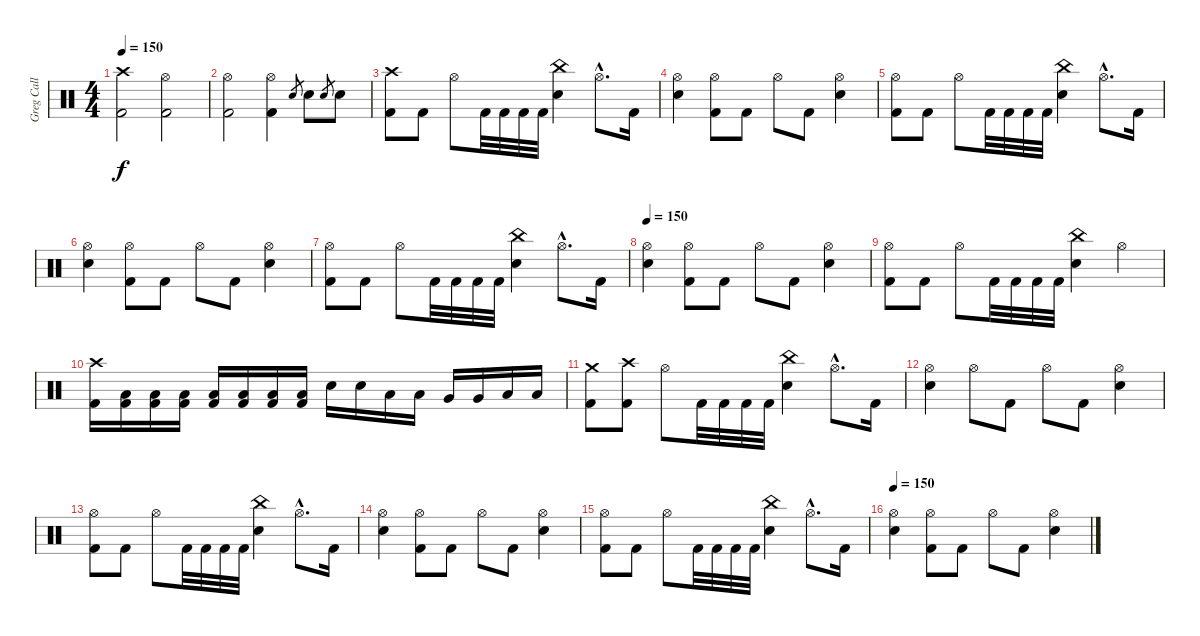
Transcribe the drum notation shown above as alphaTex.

\track ("Greg Call (Drums)" "Greg Call ") {instrument percussion}
\staff {score}
\articulation defaults
\ts (4 4)
\tempo 150
\clef neutral
\ks c
("Crash high (hit)" "Kick (hit) 2").2{dy f} ("Hi-Hat (open)" "Kick (hit) 2").2 |
("Hi-Hat (open)" "Kick (hit) 2").2 ("Hi-Hat (open)" "Kick (hit) 2").4 "Snare (hit) 2".8{gr} "Snare (hit) 2".8 "Snare (hit) 2".8{gr} "Snare (hit) 2".8 |
("Crash high (hit)" "Kick (hit) 2").8 "Kick (hit) 2".8 "Hi-Hat (open)".8 "Kick (hit) 2".32 "Kick (hit) 2".32 "Kick (hit) 2".32 "Kick (hit) 2".32 ("China (hit)" "Snare (hit) 2").4 "Hi-Hat (open)"{hac}.8{d} "Kick (hit) 2".16 |
("Hi-Hat (open)" "Snare (hit) 2").4 ("Hi-Hat (open)" "Kick (hit) 2").8 "Kick (hit) 2".8 "Hi-Hat (open)".8 "Kick (hit) 2".8 ("Hi-Hat (open)" "Snare (hit) 2").4 |
("Hi-Hat (open)" "Kick (hit) 2").8 "Kick (hit) 2".8 "Hi-Hat (open)".8 "Kick (hit) 2".32 "Kick (hit) 2".32 "Kick (hit) 2".32 "Kick (hit) 2".32 ("China (hit)" "Snare (hit) 2").4 "Hi-Hat (open)"{hac}.8{d} "Kick (hit) 2".16 |
("Hi-Hat (open)" "Snare (hit) 2").4 ("Hi-Hat (open)" "Kick (hit) 2").8 "Kick (hit) 2".8 "Hi-Hat (open)".8 "Kick (hit) 2".8 ("Hi-Hat (open)" "Snare (hit) 2").4 |
("Hi-Hat (open)" "Kick (hit) 2").8 "Kick (hit) 2".8 "Hi-Hat (open)".8 "Kick (hit) 2".32 "Kick (hit) 2".32 "Kick (hit) 2".32 "Kick (hit) 2".32 ("China (hit)" "Snare (hit) 2").4 "Hi-Hat (open)"{hac}.8{d} "Kick (hit) 2".16 |
\tempo 150
("Hi-Hat (open)" "Snare (hit) 2").4 ("Hi-Hat (open)" "Kick (hit) 2").8 "Kick (hit) 2".8 "Hi-Hat (open)".8 "Kick (hit) 2".8 ("Hi-Hat (open)" "Snare (hit) 2").4 |
("Hi-Hat (open)" "Kick (hit) 2").8 "Kick (hit) 2".8 "Hi-Hat (open)".8 "Kick (hit) 2".32 "Kick (hit) 2".32 "Kick (hit) 2".32 "Kick (hit) 2".32 ("China (hit)" "Snare (hit) 2").4 "Hi-Hat (open)".4 |
("Crash high (hit)" "Kick (hit) 2").16 ("Low Floor Tom (hit)" "Kick (hit) 2").16 ("Low Floor Tom (hit)" "Kick (hit) 2").16 ("Low Floor Tom (hit)" "Kick (hit) 2").16 ("Low Floor Tom (hit)" "Kick (hit) 2").16 ("Low Floor Tom (hit)" "Kick (hit) 2").16 ("Low Floor Tom (hit)" "Kick (hit) 2").16 ("Low Floor Tom (hit)" "Kick (hit) 2").16 "Snare (hit) 2".16 "Snare (hit) 2".16 "Low Tom (hit)".16 "Low Tom (hit)".16 "Very Low Tom (hit)".16 "Very Low Tom (hit)".16 "Low Floor Tom (hit)".16 "Low Floor Tom (hit)".16 |
("Crash medium (hit)" "Kick (hit) 2").8 ("Crash high (hit)" "Kick (hit) 2").8 "Hi-Hat (open)".8 "Kick (hit) 2".32 "Kick (hit) 2".32 "Kick (hit) 2".32 "Kick (hit) 2".32 ("China (hit)" "Snare (hit) 2").4 "Hi-Hat (open)"{hac}.8{d} "Kick (hit) 2".16 |
("Hi-Hat (open)" "Snare (hit) 2").4 "Hi-Hat (open)".8 "Kick (hit) 2".8 "Hi-Hat (open)".8 "Kick (hit) 2".8 ("Hi-Hat (open)" "Snare (hit) 2").4 |
("Hi-Hat (open)" "Kick (hit) 2").8 "Kick (hit) 2".8 "Hi-Hat (open)".8 "Kick (hit) 2".32 "Kick (hit) 2".32 "Kick (hit) 2".32 "Kick (hit) 2".32 ("China (hit)" "Snare (hit) 2").4 "Hi-Hat (open)"{hac}.8{d} "Kick (hit) 2".16 |
("Hi-Hat (open)" "Snare (hit) 2").4 ("Hi-Hat (open)" "Kick (hit) 2").8 "Kick (hit) 2".8 "Hi-Hat (open)".8 "Kick (hit) 2".8 ("Hi-Hat (open)" "Snare (hit) 2").4 |
("Hi-Hat (open)" "Kick (hit) 2").8 "Kick (hit) 2".8 "Hi-Hat (open)".8 "Kick (hit) 2".32 "Kick (hit) 2".32 "Kick (hit) 2".32 "Kick (hit) 2".32 ("China (hit)" "Snare (hit) 2").4 "Hi-Hat (open)"{hac}.8{d} "Kick (hit) 2".16 |
\tempo 150
("Hi-Hat (open)" "Snare (hit) 2").4 ("Hi-Hat (open)" "Kick (hit) 2").8 "Kick (hit) 2".8 "Hi-Hat (open)".8 "Kick (hit) 2".8 ("Hi-Hat (open)" "Snare (hit) 2").4
